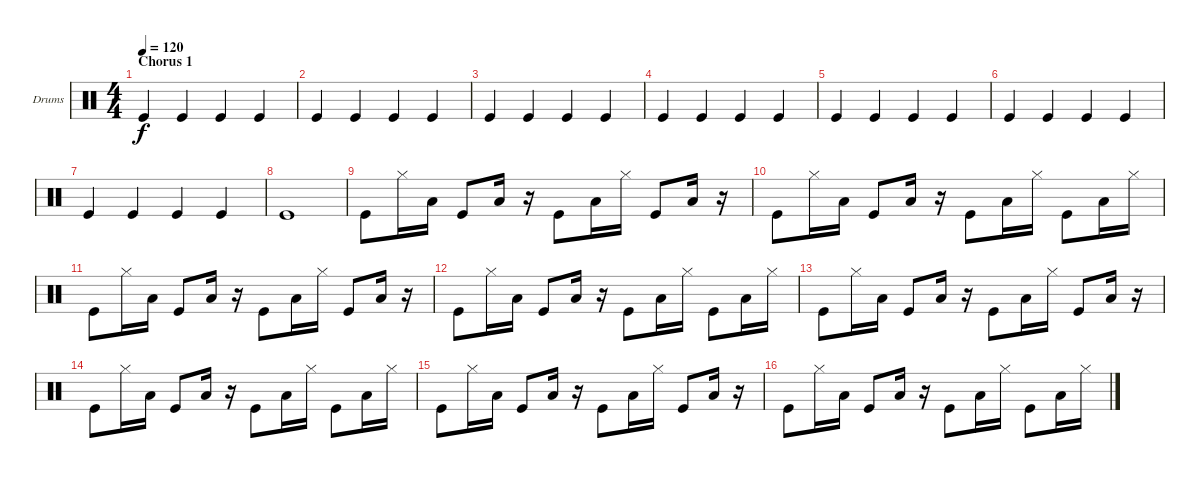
\defaultSystemsLayout 4
\bracketExtendMode groupsimilarinstruments
\firstSystemTrackNameOrientation horizontal
\otherSystemsTrackNameOrientation horizontal
\track ("Drums" "Drums") {instrument percussion}
\staff {score}
\articulation defaults
\ts (4 4)
\section ("" "Chorus 1")
\tempo 120
\clef neutral
\ks c "Kick (hit)".4{dy f} "Kick (hit)".4 "Kick (hit)".4 "Kick (hit)".4
|
"Kick (hit)".4 "Kick (hit)".4 "Kick (hit)".4 "Kick (hit)".4 |
"Kick (hit)".4 "Kick (hit)".4 "Kick (hit)".4 "Kick (hit)".4 |
"Kick (hit)".4 "Kick (hit)".4 "Kick (hit)".4 "Kick (hit)".4 |
"Kick (hit)".4 "Kick (hit)".4 "Kick (hit)".4 "Kick (hit)".4 |
"Kick (hit)".4 "Kick (hit)".4 "Kick (hit)".4 "Kick (hit)".4 |
"Kick (hit)".4 "Kick (hit)".4 "Kick (hit)".4 "Kick (hit)".4 |
"Kick (hit)".1 |
"Kick (hit)".8 "Hi-Hat (closed)".16 "Low Tom (hit)".16 "Kick (hit)".8 "Low Tom (hit)".16 r.16 "Kick (hit)".8 "Low Tom (hit)".16 "Hi-Hat (closed)".16 "Kick (hit)".8 "Low Tom (hit)".16 r.16 |
"Kick (hit)".8 "Hi-Hat (closed)".16 "Low Tom (hit)".16 "Kick (hit)".8 "Low Tom (hit)".16 r.16 "Kick (hit)".8 "Low Tom (hit)".16 "Hi-Hat (closed)".16 "Kick (hit)".8 "Low Tom (hit)".16 "Hi-Hat (closed)".16 |
"Kick (hit)".8 "Hi-Hat (closed)".16 "Low Tom (hit)".16 "Kick (hit)".8 "Low Tom (hit)".16 r.16 "Kick (hit)".8 "Low Tom (hit)".16 "Hi-Hat (closed)".16 "Kick (hit)".8 "Low Tom (hit)".16 r.16 |
"Kick (hit)".8 "Hi-Hat (closed)".16 "Low Tom (hit)".16 "Kick (hit)".8 "Low Tom (hit)".16 r.16 "Kick (hit)".8 "Low Tom (hit)".16 "Hi-Hat (closed)".16 "Kick (hit)".8 "Low Tom (hit)".16 "Hi-Hat (closed)".16 |
"Kick (hit)".8 "Hi-Hat (closed)".16 "Low Tom (hit)".16 "Kick (hit)".8 "Low Tom (hit)".16 r.16 "Kick (hit)".8 "Low Tom (hit)".16 "Hi-Hat (closed)".16 "Kick (hit)".8 "Low Tom (hit)".16 r.16 |
"Kick (hit)".8 "Hi-Hat (closed)".16 "Low Tom (hit)".16 "Kick (hit)".8 "Low Tom (hit)".16 r.16 "Kick (hit)".8 "Low Tom (hit)".16 "Hi-Hat (closed)".16 "Kick (hit)".8 "Low Tom (hit)".16 "Hi-Hat (closed)".16 |
"Kick (hit)".8 "Hi-Hat (closed)".16 "Low Tom (hit)".16 "Kick (hit)".8 "Low Tom (hit)".16 r.16 "Kick (hit)".8 "Low Tom (hit)".16 "Hi-Hat (closed)".16 "Kick (hit)".8 "Low Tom (hit)".16 r.16 |
"Kick (hit)".8 "Hi-Hat (closed)".16 "Low Tom (hit)".16 "Kick (hit)".8 "Low Tom (hit)".16 r.16 "Kick (hit)".8 "Low Tom (hit)".16 "Hi-Hat (closed)".16 "Kick (hit)".8 "Low Tom (hit)".16 "Hi-Hat (closed)".16
